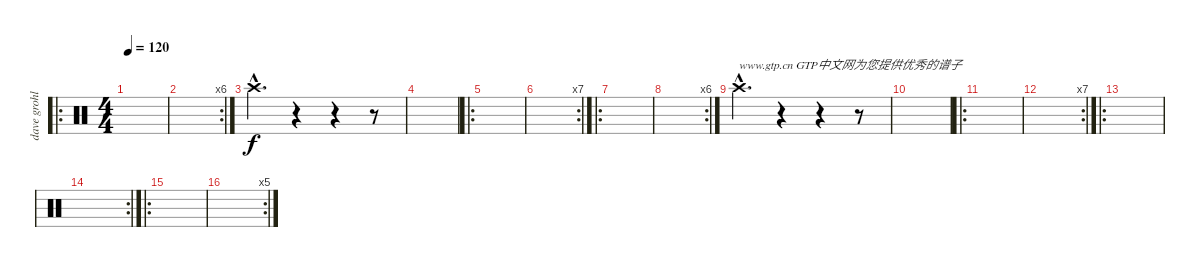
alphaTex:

\track ("dave grohl" "dave grohl") {instrument percussion}
\staff {score}
\articulation defaults
\ro
\ts (4 4)
\tempo 120
\clef neutral
\ks c
|
\rc 6
|
"Crash high (hit)"{hac}.4{d} r.4 r.4 r.8 |
|
\ro
|
\rc 7
|
\ro
|
\rc 6
|
"Crash high (hit)"{hac}.4{d txt "www.gtp.cn GTP中文网为您提供优秀的谱子"} r.4 r.4 r.8 |
|
\ro
|
\rc 7
|
\ro
|
\rc 2
|
\ro
|
\rc 5
